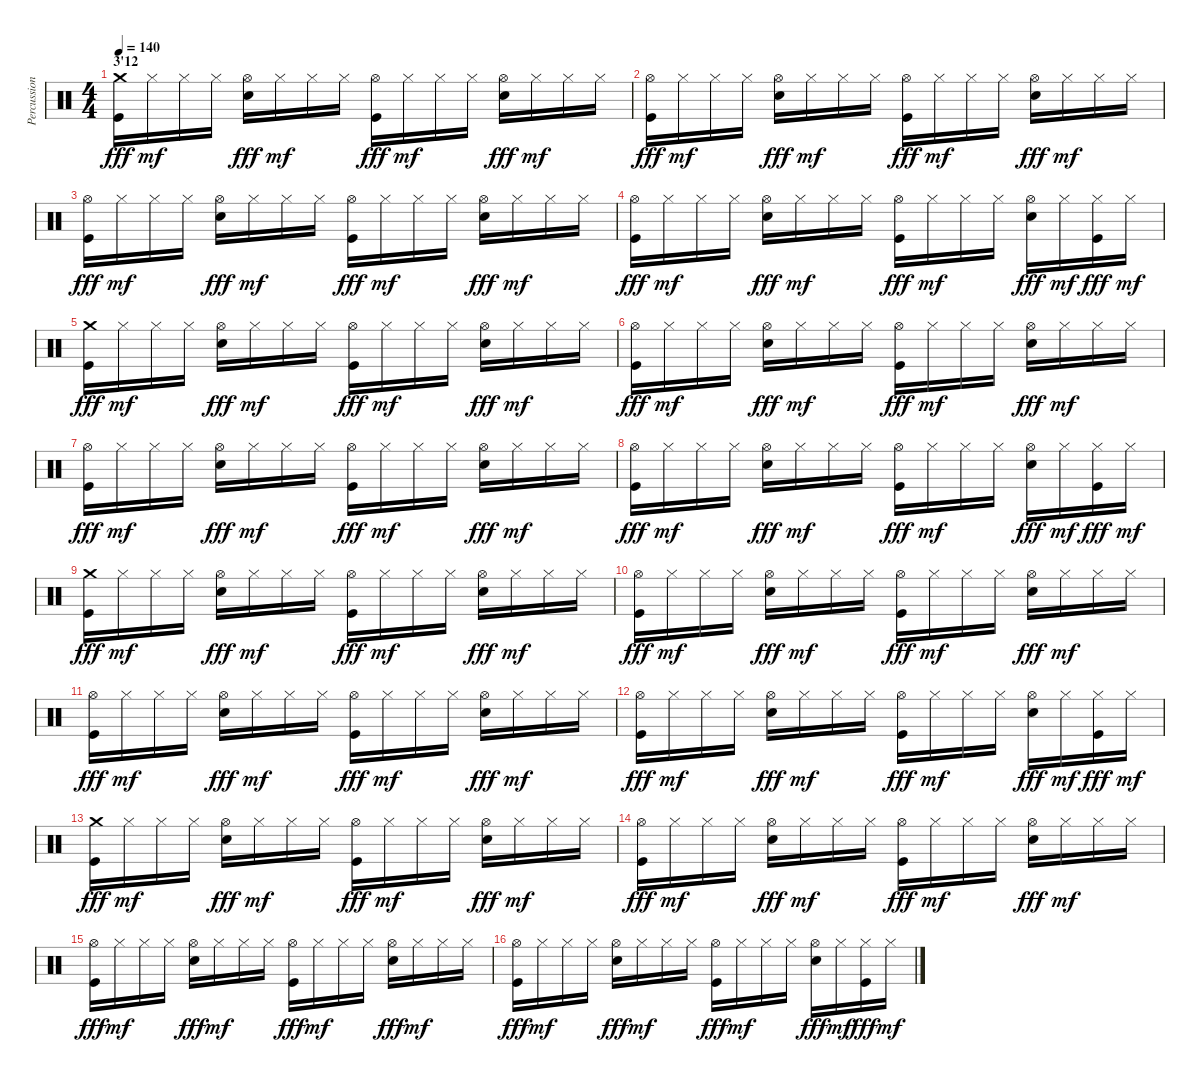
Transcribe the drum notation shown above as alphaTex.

\track ("Percussions" "Percussion") {instrument percussion}
\staff {score}
\articulation defaults
\ts (4 4)
\section ("" "3'12")
\tempo 140
\clef neutral
\ks c
("Crash medium (hit)" "Kick (hit)").16{dy fff} "Hi-Hat (closed)".16{dy mf} "Hi-Hat (closed)".16 "Hi-Hat (closed)".16 ("Hi-Hat (open)" "Electric Snare (hit)").16{dy fff} "Hi-Hat (closed)".16{dy mf} "Hi-Hat (closed)".16 "Hi-Hat (closed)".16 ("Hi-Hat (open)" "Kick (hit)").16{dy fff} "Hi-Hat (closed)".16{dy mf} "Hi-Hat (closed)".16 "Hi-Hat (closed)".16 ("Hi-Hat (open)" "Electric Snare (hit)").16{dy fff} "Hi-Hat (closed)".16{dy mf} "Hi-Hat (closed)".16 "Hi-Hat (closed)".16 |
("Hi-Hat (open)" "Kick (hit)").16{dy fff} "Hi-Hat (closed)".16{dy mf} "Hi-Hat (closed)".16 "Hi-Hat (closed)".16 ("Hi-Hat (open)" "Electric Snare (hit)").16{dy fff} "Hi-Hat (closed)".16{dy mf} "Hi-Hat (closed)".16 "Hi-Hat (closed)".16 ("Hi-Hat (open)" "Kick (hit)").16{dy fff} "Hi-Hat (closed)".16{dy mf} "Hi-Hat (closed)".16 "Hi-Hat (closed)".16 ("Hi-Hat (open)" "Electric Snare (hit)").16{dy fff} "Hi-Hat (closed)".16{dy mf} "Hi-Hat (closed)".16 "Hi-Hat (closed)".16 |
("Hi-Hat (open)" "Kick (hit)").16{dy fff} "Hi-Hat (closed)".16{dy mf} "Hi-Hat (closed)".16 "Hi-Hat (closed)".16 ("Hi-Hat (open)" "Electric Snare (hit)").16{dy fff} "Hi-Hat (closed)".16{dy mf} "Hi-Hat (closed)".16 "Hi-Hat (closed)".16 ("Hi-Hat (open)" "Kick (hit)").16{dy fff} "Hi-Hat (closed)".16{dy mf} "Hi-Hat (closed)".16 "Hi-Hat (closed)".16 ("Hi-Hat (open)" "Electric Snare (hit)").16{dy fff} "Hi-Hat (closed)".16{dy mf} "Hi-Hat (closed)".16 "Hi-Hat (closed)".16 |
("Hi-Hat (open)" "Kick (hit)").16{dy fff} "Hi-Hat (closed)".16{dy mf} "Hi-Hat (closed)".16 "Hi-Hat (closed)".16 ("Hi-Hat (open)" "Electric Snare (hit)").16{dy fff} "Hi-Hat (closed)".16{dy mf} "Hi-Hat (closed)".16 "Hi-Hat (closed)".16 ("Hi-Hat (open)" "Kick (hit)").16{dy fff} "Hi-Hat (closed)".16{dy mf} "Hi-Hat (closed)".16 "Hi-Hat (closed)".16 ("Hi-Hat (open)" "Electric Snare (hit)").16{dy fff} "Hi-Hat (closed)".16{dy mf} ("Hi-Hat (closed)" "Kick (hit)").16{dy fff} "Hi-Hat (closed)".16{dy mf} |
("Crash medium (hit)" "Kick (hit)").16{dy fff} "Hi-Hat (closed)".16{dy mf} "Hi-Hat (closed)".16 "Hi-Hat (closed)".16 ("Hi-Hat (open)" "Electric Snare (hit)").16{dy fff} "Hi-Hat (closed)".16{dy mf} "Hi-Hat (closed)".16 "Hi-Hat (closed)".16 ("Hi-Hat (open)" "Kick (hit)").16{dy fff} "Hi-Hat (closed)".16{dy mf} "Hi-Hat (closed)".16 "Hi-Hat (closed)".16 ("Hi-Hat (open)" "Electric Snare (hit)").16{dy fff} "Hi-Hat (closed)".16{dy mf} "Hi-Hat (closed)".16 "Hi-Hat (closed)".16 |
("Hi-Hat (open)" "Kick (hit)").16{dy fff} "Hi-Hat (closed)".16{dy mf} "Hi-Hat (closed)".16 "Hi-Hat (closed)".16 ("Hi-Hat (open)" "Electric Snare (hit)").16{dy fff} "Hi-Hat (closed)".16{dy mf} "Hi-Hat (closed)".16 "Hi-Hat (closed)".16 ("Hi-Hat (open)" "Kick (hit)").16{dy fff} "Hi-Hat (closed)".16{dy mf} "Hi-Hat (closed)".16 "Hi-Hat (closed)".16 ("Hi-Hat (open)" "Electric Snare (hit)").16{dy fff} "Hi-Hat (closed)".16{dy mf} "Hi-Hat (closed)".16 "Hi-Hat (closed)".16 |
("Hi-Hat (open)" "Kick (hit)").16{dy fff} "Hi-Hat (closed)".16{dy mf} "Hi-Hat (closed)".16 "Hi-Hat (closed)".16 ("Hi-Hat (open)" "Electric Snare (hit)").16{dy fff} "Hi-Hat (closed)".16{dy mf} "Hi-Hat (closed)".16 "Hi-Hat (closed)".16 ("Hi-Hat (open)" "Kick (hit)").16{dy fff} "Hi-Hat (closed)".16{dy mf} "Hi-Hat (closed)".16 "Hi-Hat (closed)".16 ("Hi-Hat (open)" "Electric Snare (hit)").16{dy fff} "Hi-Hat (closed)".16{dy mf} "Hi-Hat (closed)".16 "Hi-Hat (closed)".16 |
("Hi-Hat (open)" "Kick (hit)").16{dy fff} "Hi-Hat (closed)".16{dy mf} "Hi-Hat (closed)".16 "Hi-Hat (closed)".16 ("Hi-Hat (open)" "Electric Snare (hit)").16{dy fff} "Hi-Hat (closed)".16{dy mf} "Hi-Hat (closed)".16 "Hi-Hat (closed)".16 ("Hi-Hat (open)" "Kick (hit)").16{dy fff} "Hi-Hat (closed)".16{dy mf} "Hi-Hat (closed)".16 "Hi-Hat (closed)".16 ("Hi-Hat (open)" "Electric Snare (hit)").16{dy fff} "Hi-Hat (closed)".16{dy mf} ("Hi-Hat (closed)" "Kick (hit)").16{dy fff} "Hi-Hat (closed)".16{dy mf} |
("Crash medium (hit)" "Kick (hit)").16{dy fff} "Hi-Hat (closed)".16{dy mf} "Hi-Hat (closed)".16 "Hi-Hat (closed)".16 ("Hi-Hat (open)" "Electric Snare (hit)").16{dy fff} "Hi-Hat (closed)".16{dy mf} "Hi-Hat (closed)".16 "Hi-Hat (closed)".16 ("Hi-Hat (open)" "Kick (hit)").16{dy fff} "Hi-Hat (closed)".16{dy mf} "Hi-Hat (closed)".16 "Hi-Hat (closed)".16 ("Hi-Hat (open)" "Electric Snare (hit)").16{dy fff} "Hi-Hat (closed)".16{dy mf} "Hi-Hat (closed)".16 "Hi-Hat (closed)".16 |
("Hi-Hat (open)" "Kick (hit)").16{dy fff} "Hi-Hat (closed)".16{dy mf} "Hi-Hat (closed)".16 "Hi-Hat (closed)".16 ("Hi-Hat (open)" "Electric Snare (hit)").16{dy fff} "Hi-Hat (closed)".16{dy mf} "Hi-Hat (closed)".16 "Hi-Hat (closed)".16 ("Hi-Hat (open)" "Kick (hit)").16{dy fff} "Hi-Hat (closed)".16{dy mf} "Hi-Hat (closed)".16 "Hi-Hat (closed)".16 ("Hi-Hat (open)" "Electric Snare (hit)").16{dy fff} "Hi-Hat (closed)".16{dy mf} "Hi-Hat (closed)".16 "Hi-Hat (closed)".16 |
("Hi-Hat (open)" "Kick (hit)").16{dy fff} "Hi-Hat (closed)".16{dy mf} "Hi-Hat (closed)".16 "Hi-Hat (closed)".16 ("Hi-Hat (open)" "Electric Snare (hit)").16{dy fff} "Hi-Hat (closed)".16{dy mf} "Hi-Hat (closed)".16 "Hi-Hat (closed)".16 ("Hi-Hat (open)" "Kick (hit)").16{dy fff} "Hi-Hat (closed)".16{dy mf} "Hi-Hat (closed)".16 "Hi-Hat (closed)".16 ("Hi-Hat (open)" "Electric Snare (hit)").16{dy fff} "Hi-Hat (closed)".16{dy mf} "Hi-Hat (closed)".16 "Hi-Hat (closed)".16 |
("Hi-Hat (open)" "Kick (hit)").16{dy fff} "Hi-Hat (closed)".16{dy mf} "Hi-Hat (closed)".16 "Hi-Hat (closed)".16 ("Hi-Hat (open)" "Electric Snare (hit)").16{dy fff} "Hi-Hat (closed)".16{dy mf} "Hi-Hat (closed)".16 "Hi-Hat (closed)".16 ("Hi-Hat (open)" "Kick (hit)").16{dy fff} "Hi-Hat (closed)".16{dy mf} "Hi-Hat (closed)".16 "Hi-Hat (closed)".16 ("Hi-Hat (open)" "Electric Snare (hit)").16{dy fff} "Hi-Hat (closed)".16{dy mf} ("Hi-Hat (closed)" "Kick (hit)").16{dy fff} "Hi-Hat (closed)".16{dy mf} |
("Crash medium (hit)" "Kick (hit)").16{dy fff} "Hi-Hat (closed)".16{dy mf} "Hi-Hat (closed)".16 "Hi-Hat (closed)".16 ("Hi-Hat (open)" "Electric Snare (hit)").16{dy fff} "Hi-Hat (closed)".16{dy mf} "Hi-Hat (closed)".16 "Hi-Hat (closed)".16 ("Hi-Hat (open)" "Kick (hit)").16{dy fff} "Hi-Hat (closed)".16{dy mf} "Hi-Hat (closed)".16 "Hi-Hat (closed)".16 ("Hi-Hat (open)" "Electric Snare (hit)").16{dy fff} "Hi-Hat (closed)".16{dy mf} "Hi-Hat (closed)".16 "Hi-Hat (closed)".16 |
("Hi-Hat (open)" "Kick (hit)").16{dy fff} "Hi-Hat (closed)".16{dy mf} "Hi-Hat (closed)".16 "Hi-Hat (closed)".16 ("Hi-Hat (open)" "Electric Snare (hit)").16{dy fff} "Hi-Hat (closed)".16{dy mf} "Hi-Hat (closed)".16 "Hi-Hat (closed)".16 ("Hi-Hat (open)" "Kick (hit)").16{dy fff} "Hi-Hat (closed)".16{dy mf} "Hi-Hat (closed)".16 "Hi-Hat (closed)".16 ("Hi-Hat (open)" "Electric Snare (hit)").16{dy fff} "Hi-Hat (closed)".16{dy mf} "Hi-Hat (closed)".16 "Hi-Hat (closed)".16 |
("Hi-Hat (open)" "Kick (hit)").16{dy fff} "Hi-Hat (closed)".16{dy mf} "Hi-Hat (closed)".16 "Hi-Hat (closed)".16 ("Hi-Hat (open)" "Electric Snare (hit)").16{dy fff} "Hi-Hat (closed)".16{dy mf} "Hi-Hat (closed)".16 "Hi-Hat (closed)".16 ("Hi-Hat (open)" "Kick (hit)").16{dy fff} "Hi-Hat (closed)".16{dy mf} "Hi-Hat (closed)".16 "Hi-Hat (closed)".16 ("Hi-Hat (open)" "Electric Snare (hit)").16{dy fff} "Hi-Hat (closed)".16{dy mf} "Hi-Hat (closed)".16 "Hi-Hat (closed)".16 |
("Hi-Hat (open)" "Kick (hit)").16{dy fff} "Hi-Hat (closed)".16{dy mf} "Hi-Hat (closed)".16 "Hi-Hat (closed)".16 ("Hi-Hat (open)" "Electric Snare (hit)").16{dy fff} "Hi-Hat (closed)".16{dy mf} "Hi-Hat (closed)".16 "Hi-Hat (closed)".16 ("Hi-Hat (open)" "Kick (hit)").16{dy fff} "Hi-Hat (closed)".16{dy mf} "Hi-Hat (closed)".16 "Hi-Hat (closed)".16 ("Hi-Hat (open)" "Electric Snare (hit)").16{dy fff} "Hi-Hat (closed)".16{dy mf} ("Hi-Hat (closed)" "Kick (hit)").16{dy fff} "Hi-Hat (closed)".16{dy mf}
